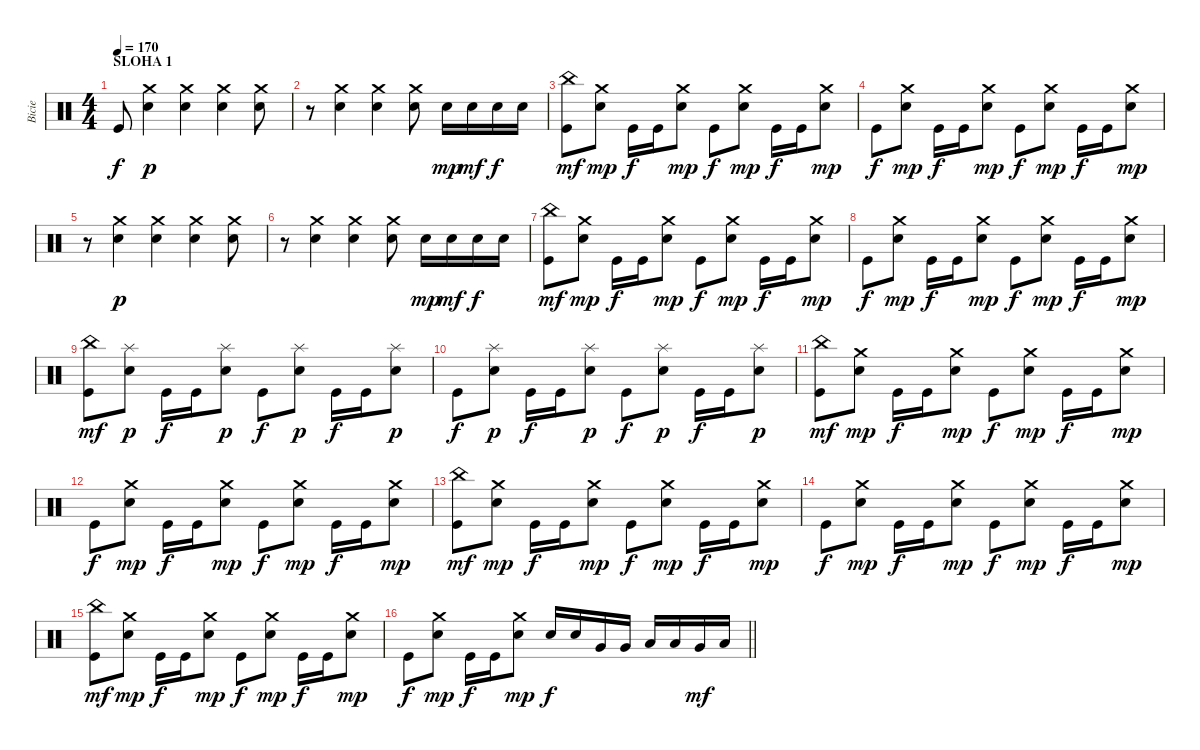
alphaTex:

\track ("Bicie" "Bicie") {instrument percussion}
\staff {score}
\articulation defaults
\ts (4 4)
\section ("" "SLOHA 1")
\tempo 170
\clef neutral
\ks c "Kick (hit)".8{dy f}
("Snare (hit) 2" "Crash medium (hit)").4{dy p} ("Snare (hit) 2" "Crash medium (hit)").4 ("Snare (hit) 2" "Crash medium (hit)").4 ("Snare (hit) 2" "Crash medium (hit)").8 |
r.8 ("Snare (hit) 2" "Crash medium (hit)").4 ("Snare (hit) 2" "Crash medium (hit)").4 ("Snare (hit) 2" "Crash medium (hit)").8 "Snare (hit) 2".16{dy mp} "Snare (hit) 2".16{dy mf} "Snare (hit) 2".16{dy f} "Snare (hit) 2".16 |
("Kick (hit)" "China (hit)").8{dy mf} ("Snare (hit) 2" "Crash medium (hit)").8{dy mp} "Kick (hit)".16{dy f} "Kick (hit)".16 ("Snare (hit) 2" "Crash medium (hit)").8{dy mp} "Kick (hit)".8{dy f} ("Snare (hit) 2" "Crash medium (hit)").8{dy mp} "Kick (hit)".16{dy f} "Kick (hit)".16 ("Snare (hit) 2" "Crash medium (hit)").8{dy mp} |
"Kick (hit)".8{dy f} ("Snare (hit) 2" "Crash medium (hit)").8{dy mp} "Kick (hit)".16{dy f} "Kick (hit)".16 ("Snare (hit) 2" "Crash medium (hit)").8{dy mp} "Kick (hit)".8{dy f} ("Snare (hit) 2" "Crash medium (hit)").8{dy mp} "Kick (hit)".16{dy f} "Kick (hit)".16 ("Snare (hit) 2" "Crash medium (hit)").8{dy mp} |
r.8 ("Snare (hit) 2" "Crash medium (hit)").4{dy p} ("Snare (hit) 2" "Crash medium (hit)").4 ("Snare (hit) 2" "Crash medium (hit)").4 ("Snare (hit) 2" "Crash medium (hit)").8 |
r.8 ("Snare (hit) 2" "Crash medium (hit)").4 ("Snare (hit) 2" "Crash medium (hit)").4 ("Snare (hit) 2" "Crash medium (hit)").8 "Snare (hit) 2".16{dy mp} "Snare (hit) 2".16{dy mf} "Snare (hit) 2".16{dy f} "Snare (hit) 2".16 |
("Kick (hit)" "China (hit)").8{dy mf} ("Snare (hit) 2" "Crash medium (hit)").8{dy mp} "Kick (hit)".16{dy f} "Kick (hit)".16 ("Snare (hit) 2" "Crash medium (hit)").8{dy mp} "Kick (hit)".8{dy f} ("Snare (hit) 2" "Crash medium (hit)").8{dy mp} "Kick (hit)".16{dy f} "Kick (hit)".16 ("Snare (hit) 2" "Crash medium (hit)").8{dy mp} |
"Kick (hit)".8{dy f} ("Snare (hit) 2" "Crash medium (hit)").8{dy mp} "Kick (hit)".16{dy f} "Kick (hit)".16 ("Snare (hit) 2" "Crash medium (hit)").8{dy mp} "Kick (hit)".8{dy f} ("Snare (hit) 2" "Crash medium (hit)").8{dy mp} "Kick (hit)".16{dy f} "Kick (hit)".16 ("Snare (hit) 2" "Crash medium (hit)").8{dy mp} |
("Kick (hit)" "China (hit)").8{dy mf} ("Snare (hit) 2" "Splash (hit)").8{dy p} "Kick (hit)".16{dy f} "Kick (hit)".16 ("Snare (hit) 2" "Splash (hit)").8{dy p} "Kick (hit)".8{dy f} ("Snare (hit) 2" "Splash (hit)").8{dy p} "Kick (hit)".16{dy f} "Kick (hit)".16 ("Snare (hit) 2" "Splash (hit)").8{dy p} |
"Kick (hit)".8{dy f} ("Snare (hit) 2" "Splash (hit)").8{dy p} "Kick (hit)".16{dy f} "Kick (hit)".16 ("Snare (hit) 2" "Splash (hit)").8{dy p} "Kick (hit)".8{dy f} ("Snare (hit) 2" "Splash (hit)").8{dy p} "Kick (hit)".16{dy f} "Kick (hit)".16 ("Snare (hit) 2" "Splash (hit)").8{dy p} |
("Kick (hit)" "China (hit)").8{dy mf} ("Snare (hit) 2" "Crash medium (hit)").8{dy mp} "Kick (hit)".16{dy f} "Kick (hit)".16 ("Snare (hit) 2" "Crash medium (hit)").8{dy mp} "Kick (hit)".8{dy f} ("Snare (hit) 2" "Crash medium (hit)").8{dy mp} "Kick (hit)".16{dy f} "Kick (hit)".16 ("Snare (hit) 2" "Crash medium (hit)").8{dy mp} |
"Kick (hit)".8{dy f} ("Snare (hit) 2" "Crash medium (hit)").8{dy mp} "Kick (hit)".16{dy f} "Kick (hit)".16 ("Snare (hit) 2" "Crash medium (hit)").8{dy mp} "Kick (hit)".8{dy f} ("Snare (hit) 2" "Crash medium (hit)").8{dy mp} "Kick (hit)".16{dy f} "Kick (hit)".16 ("Snare (hit) 2" "Crash medium (hit)").8{dy mp} |
("Kick (hit)" "China (hit)").8{dy mf} ("Snare (hit) 2" "Crash medium (hit)").8{dy mp} "Kick (hit)".16{dy f} "Kick (hit)".16 ("Snare (hit) 2" "Crash medium (hit)").8{dy mp} "Kick (hit)".8{dy f} ("Snare (hit) 2" "Crash medium (hit)").8{dy mp} "Kick (hit)".16{dy f} "Kick (hit)".16 ("Snare (hit) 2" "Crash medium (hit)").8{dy mp} |
"Kick (hit)".8{dy f} ("Snare (hit) 2" "Crash medium (hit)").8{dy mp} "Kick (hit)".16{dy f} "Kick (hit)".16 ("Snare (hit) 2" "Crash medium (hit)").8{dy mp} "Kick (hit)".8{dy f} ("Snare (hit) 2" "Crash medium (hit)").8{dy mp} "Kick (hit)".16{dy f} "Kick (hit)".16 ("Snare (hit) 2" "Crash medium (hit)").8{dy mp} |
("Kick (hit)" "China (hit)").8{dy mf} ("Snare (hit) 2" "Crash medium (hit)").8{dy mp} "Kick (hit)".16{dy f} "Kick (hit)".16 ("Snare (hit) 2" "Crash medium (hit)").8{dy mp} "Kick (hit)".8{dy f} ("Snare (hit) 2" "Crash medium (hit)").8{dy mp} "Kick (hit)".16{dy f} "Kick (hit)".16 ("Snare (hit) 2" "Crash medium (hit)").8{dy mp} |
\barLineRight lightlight "Kick (hit)".8{dy f}
("Snare (hit) 2" "Crash medium (hit)").8{dy mp} "Kick (hit)".16{dy f} "Kick (hit)".16 ("Snare (hit) 2" "Crash medium (hit)").8{dy mp} "Snare (hit) 2".16{dy f} "Snare (hit) 2".16 "Very Low Tom (hit)".16 "Very Low Tom (hit)".16 "Low Floor Tom (hit)".16 "Low Floor Tom (hit)".16 "Very Low Tom (hit)".16{dy mf} "Low Floor Tom (hit)".16
